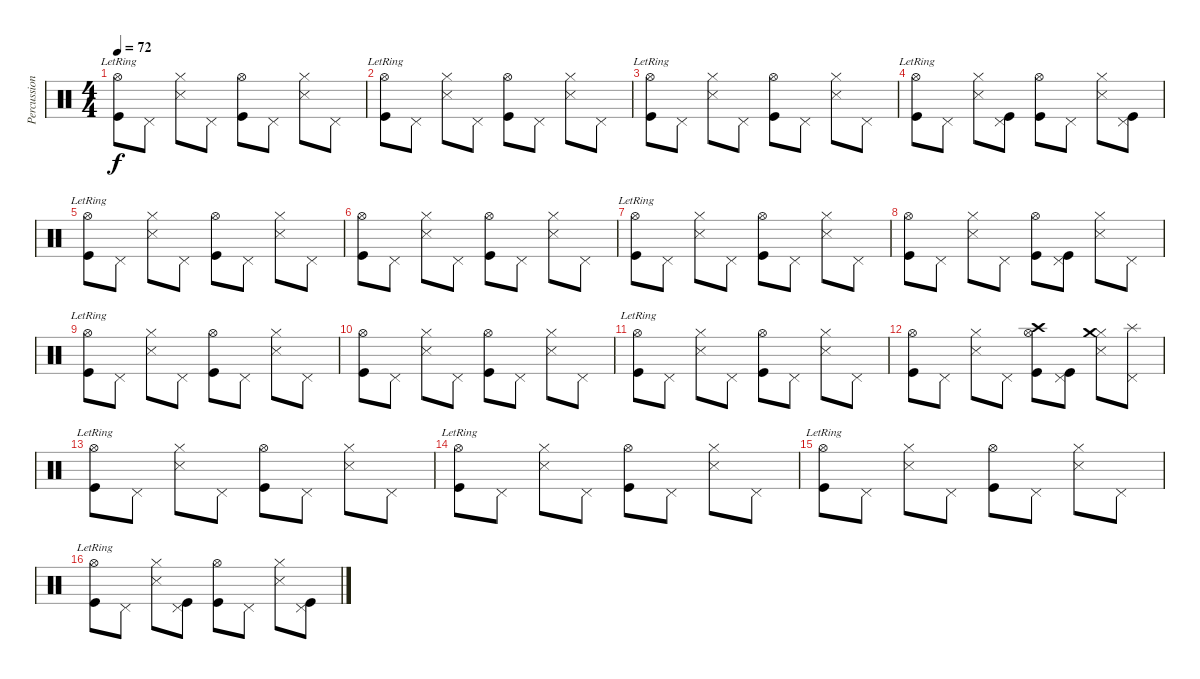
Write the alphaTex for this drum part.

\track ("Percussion" "Percussion") {instrument percussion}
\staff {score}
\articulation defaults
\ts (4 4)
\tempo 72
\clef neutral
\ks c
("Hi-Hat (open)"{lr} "Kick (hit)").8{dy f} "Pedal Hi-Hat (hit)".8 ("Hi-Hat (closed)" "Snare (side stick) 3").8 "Pedal Hi-Hat (hit)".8 ("Hi-Hat (open)" "Kick (hit)").8 "Pedal Hi-Hat (hit)".8 ("Hi-Hat (closed)" "Snare (side stick) 3").8 "Pedal Hi-Hat (hit)".8 |
("Hi-Hat (open)"{lr} "Kick (hit)").8 "Pedal Hi-Hat (hit)".8 ("Hi-Hat (closed)" "Snare (side stick) 3").8 "Pedal Hi-Hat (hit)".8 ("Hi-Hat (open)" "Kick (hit)").8 "Pedal Hi-Hat (hit)".8 ("Hi-Hat (closed)" "Snare (side stick) 3").8 "Pedal Hi-Hat (hit)".8 |
("Hi-Hat (open)"{lr} "Kick (hit)").8 "Pedal Hi-Hat (hit)".8 ("Hi-Hat (closed)" "Snare (side stick) 3").8 "Pedal Hi-Hat (hit)".8 ("Hi-Hat (open)" "Kick (hit)").8 "Pedal Hi-Hat (hit)".8 ("Hi-Hat (closed)" "Snare (side stick) 3").8 "Pedal Hi-Hat (hit)".8 |
("Hi-Hat (open)"{lr} "Kick (hit)").8 "Pedal Hi-Hat (hit)".8 ("Hi-Hat (closed)" "Snare (side stick) 3").8 ("Pedal Hi-Hat (hit)" "Kick (hit)").8 ("Hi-Hat (open)" "Kick (hit)").8 "Pedal Hi-Hat (hit)".8 ("Hi-Hat (closed)" "Snare (side stick) 3").8 ("Pedal Hi-Hat (hit)" "Kick (hit)").8 |
("Hi-Hat (open)"{lr} "Kick (hit)").8 "Pedal Hi-Hat (hit)".8 ("Hi-Hat (closed)" "Snare (side stick) 3").8 "Pedal Hi-Hat (hit)".8 ("Hi-Hat (open)" "Kick (hit)").8 "Pedal Hi-Hat (hit)".8 ("Hi-Hat (closed)" "Snare (side stick) 3").8 "Pedal Hi-Hat (hit)".8 |
("Hi-Hat (open)" "Kick (hit)").8 "Pedal Hi-Hat (hit)".8 ("Hi-Hat (closed)" "Snare (side stick) 3").8 "Pedal Hi-Hat (hit)".8 ("Hi-Hat (open)" "Kick (hit)").8 "Pedal Hi-Hat (hit)".8 ("Hi-Hat (closed)" "Snare (side stick) 3").8 "Pedal Hi-Hat (hit)".8 |
("Hi-Hat (open)"{lr} "Kick (hit)").8 "Pedal Hi-Hat (hit)".8 ("Hi-Hat (closed)" "Snare (side stick) 3").8 "Pedal Hi-Hat (hit)".8 ("Hi-Hat (open)" "Kick (hit)").8 "Pedal Hi-Hat (hit)".8 ("Hi-Hat (closed)" "Snare (side stick) 3").8 "Pedal Hi-Hat (hit)".8 |
("Hi-Hat (open)" "Kick (hit)").8 "Pedal Hi-Hat (hit)".8 ("Hi-Hat (closed)" "Snare (side stick) 3").8 "Pedal Hi-Hat (hit)".8 ("Hi-Hat (open)" "Kick (hit)").8 ("Pedal Hi-Hat (hit)" "Kick (hit)").8 ("Hi-Hat (closed)" "Snare (side stick) 3").8 "Pedal Hi-Hat (hit)".8 |
("Hi-Hat (open)"{lr} "Kick (hit)").8 "Pedal Hi-Hat (hit)".8 ("Hi-Hat (closed)" "Snare (side stick) 3").8 "Pedal Hi-Hat (hit)".8 ("Hi-Hat (open)" "Kick (hit)").8 "Pedal Hi-Hat (hit)".8 ("Hi-Hat (closed)" "Snare (side stick) 3").8 "Pedal Hi-Hat (hit)".8 |
("Hi-Hat (open)" "Kick (hit)").8 "Pedal Hi-Hat (hit)".8 ("Hi-Hat (closed)" "Snare (side stick) 3").8 "Pedal Hi-Hat (hit)".8 ("Hi-Hat (open)" "Kick (hit)").8 "Pedal Hi-Hat (hit)".8 ("Hi-Hat (closed)" "Snare (side stick) 3").8 "Pedal Hi-Hat (hit)".8 |
("Hi-Hat (open)"{lr} "Kick (hit)").8 "Pedal Hi-Hat (hit)".8 ("Hi-Hat (closed)" "Snare (side stick) 3").8 "Pedal Hi-Hat (hit)".8 ("Hi-Hat (open)" "Kick (hit)").8 "Pedal Hi-Hat (hit)".8 ("Hi-Hat (closed)" "Snare (side stick) 3").8 "Pedal Hi-Hat (hit)".8 |
("Hi-Hat (open)" "Kick (hit)").8 "Pedal Hi-Hat (hit)".8 ("Hi-Hat (closed)" "Snare (side stick) 3").8 "Pedal Hi-Hat (hit)".8 ("Hi-Hat (open)" "Crash high (hit)" "Kick (hit)").8 ("Pedal Hi-Hat (hit)" "Kick (hit)").8 ("Hi-Hat (closed)" "Crash medium (hit)" "Snare (side stick) 3").8 ("Pedal Hi-Hat (hit)" "Splash (hit)").8 |
("Hi-Hat (open)"{lr} "Kick (hit)").8 "Pedal Hi-Hat (hit)".8 ("Hi-Hat (closed)" "Snare (side stick) 3").8 "Pedal Hi-Hat (hit)".8 ("Hi-Hat (open)" "Kick (hit)").8 "Pedal Hi-Hat (hit)".8 ("Hi-Hat (closed)" "Snare (side stick) 3").8 "Pedal Hi-Hat (hit)".8 |
("Hi-Hat (open)"{lr} "Kick (hit)").8 "Pedal Hi-Hat (hit)".8 ("Hi-Hat (closed)" "Snare (side stick) 3").8 "Pedal Hi-Hat (hit)".8 ("Hi-Hat (open)" "Kick (hit)").8 "Pedal Hi-Hat (hit)".8 ("Hi-Hat (closed)" "Snare (side stick) 3").8 "Pedal Hi-Hat (hit)".8 |
("Hi-Hat (open)"{lr} "Kick (hit)").8 "Pedal Hi-Hat (hit)".8 ("Hi-Hat (closed)" "Snare (side stick) 3").8 "Pedal Hi-Hat (hit)".8 ("Hi-Hat (open)" "Kick (hit)").8 "Pedal Hi-Hat (hit)".8 ("Hi-Hat (closed)" "Snare (side stick) 3").8 "Pedal Hi-Hat (hit)".8 |
("Hi-Hat (open)"{lr} "Kick (hit)").8 "Pedal Hi-Hat (hit)".8 ("Hi-Hat (closed)" "Snare (side stick) 3").8 ("Pedal Hi-Hat (hit)" "Kick (hit)").8 ("Hi-Hat (open)" "Kick (hit)").8 "Pedal Hi-Hat (hit)".8 ("Hi-Hat (closed)" "Snare (side stick) 3").8 ("Pedal Hi-Hat (hit)" "Kick (hit)").8
